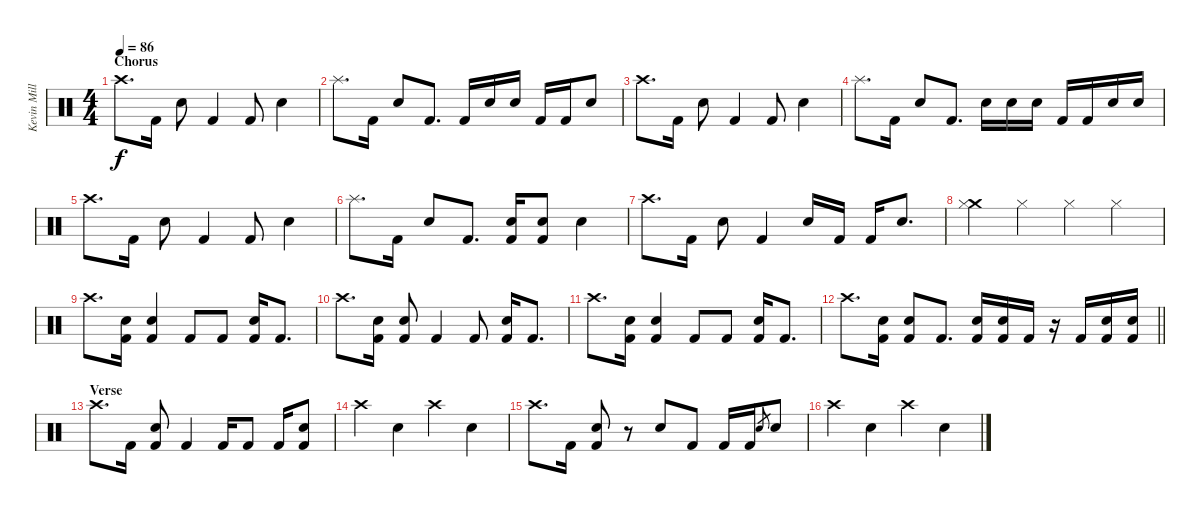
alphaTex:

\track ("Kevin Miller (Drums)" "Kevin Mill") {instrument percussion}
\staff {score}
\articulation defaults
\ts (4 4)
\section ("" "Chorus")
\tempo 86
\clef neutral
\ks c "Crash high (hit)".8{d dy f} "Kick (hit) 2".16 "Electric Snare (hit)".8 "Kick (hit) 2".4 "Kick (hit) 2".8 "Electric Snare (hit)".4
|
"Splash (hit)".8{d} "Kick (hit) 2".16 "Electric Snare (hit)".8 "Kick (hit) 2".8{d} "Kick (hit) 2".16 "Electric Snare (hit)".16 "Electric Snare (hit)".16 "Kick (hit) 2".16 "Kick (hit) 2".16 "Electric Snare (hit)".8 |
"Crash high (hit)".8{d} "Kick (hit) 2".16 "Electric Snare (hit)".8 "Kick (hit) 2".4 "Kick (hit) 2".8 "Electric Snare (hit)".4 |
"Splash (hit)".8{d} "Kick (hit) 2".16 "Electric Snare (hit)".8 "Kick (hit) 2".8{d} "Electric Snare (hit)".16 "Electric Snare (hit)".16 "Electric Snare (hit)".16 "Kick (hit) 2".16 "Kick (hit) 2".16 "Electric Snare (hit)".16 "Electric Snare (hit)".16 |
"Crash high (hit)".8{d} "Kick (hit) 2".16 "Electric Snare (hit)".8 "Kick (hit) 2".4 "Kick (hit) 2".8 "Electric Snare (hit)".4 |
"Splash (hit)".8{d} "Kick (hit) 2".16 "Electric Snare (hit)".8 "Kick (hit) 2".8{d} ("Electric Snare (hit)" "Kick (hit) 2").16 ("Electric Snare (hit)" "Kick (hit) 2").8 "Electric Snare (hit)".4 |
"Crash high (hit)".8{d} "Kick (hit) 2".16 "Electric Snare (hit)".8 "Kick (hit) 2".4 "Electric Snare (hit)".16 "Kick (hit) 2".16 "Kick (hit) 2".16 "Electric Snare (hit)".8{d} |
("Crash medium (hit)" "Hi-Hat (closed)").4 "Hi-Hat (closed)".4 "Hi-Hat (closed)".4 "Hi-Hat (closed)".4 |
"Crash high (hit)".8{d} ("Electric Snare (hit)" "Kick (hit) 2").16 ("Electric Snare (hit)" "Kick (hit) 2").4 "Kick (hit) 2".8 "Kick (hit) 2".8 ("Electric Snare (hit)" "Kick (hit) 2").16 "Kick (hit) 2".8{d} |
"Crash high (hit)".8{d} ("Electric Snare (hit)" "Kick (hit) 2").16 ("Electric Snare (hit)" "Kick (hit) 2").8 "Kick (hit) 2".4 "Kick (hit) 2".8 ("Electric Snare (hit)" "Kick (hit) 2").16 "Kick (hit) 2".8{d} |
"Crash high (hit)".8{d} ("Electric Snare (hit)" "Kick (hit) 2").16 ("Electric Snare (hit)" "Kick (hit) 2").4 "Kick (hit) 2".8 "Kick (hit) 2".8 ("Electric Snare (hit)" "Kick (hit) 2").16 "Kick (hit) 2".8{d} |
\barLineRight lightlight "Crash high (hit)".8{d}
("Electric Snare (hit)" "Kick (hit) 2").16 ("Electric Snare (hit)" "Kick (hit) 2").8 "Kick (hit) 2".8{d} ("Electric Snare (hit)" "Kick (hit) 2").16 ("Electric Snare (hit)" "Kick (hit) 2").16 "Kick (hit) 2".16 r.16 "Kick (hit) 2".16 ("Electric Snare (hit)" "Kick (hit) 2").16 ("Electric Snare (hit)" "Kick (hit) 2").16 |
\section ("" "Verse")
"Crash high (hit)".8{d} "Kick (hit) 2".16 ("Electric Snare (hit)" "Kick (hit) 2").8 "Kick (hit) 2".4 "Kick (hit) 2".16 "Kick (hit) 2".8 "Kick (hit) 2".16 ("Electric Snare (hit)" "Kick (hit) 2").8 |
"Crash high (hit)".4 "Electric Snare (hit)".4 "Crash high (hit)".4 "Electric Snare (hit)".4 |
"Crash high (hit)".8{d} "Kick (hit) 2".16 ("Electric Snare (hit)" "Kick (hit) 2").8 r.8 "Electric Snare (hit)".8 "Kick (hit) 2".8 "Kick (hit) 2".16 "Kick (hit) 2".16 "Electric Snare (hit)".8{gr} "Electric Snare (hit)".8 |
"Crash high (hit)".4 "Electric Snare (hit)".4 "Crash high (hit)".4 "Electric Snare (hit)".4
